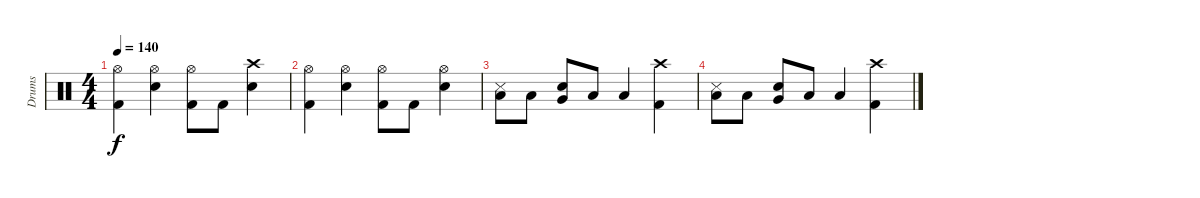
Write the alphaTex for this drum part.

\track ("Drums" "Drums") {instrument percussion}
\staff {score}
\articulation defaults
\ts (4 4)
\tempo 140
\clef neutral
\ks c
("Hi-Hat (open)" "Kick (hit) 2").4{dy f} ("Hi-Hat (open)" "Snare (hit) 2").4 ("Hi-Hat (open)" "Kick (hit) 2").8 "Kick (hit) 2".8 ("Crash high (hit)" "Snare (hit) 2").4 |
("Hi-Hat (open)" "Kick (hit) 2").4 ("Hi-Hat (open)" "Snare (hit) 2").4 ("Hi-Hat (open)" "Kick (hit) 2").8 "Kick (hit) 2".8 ("Hi-Hat (open)" "Snare (hit) 2").4 |
("Low Floor Tom (hit)" "Snare (side stick) 3").8 "Low Floor Tom (hit)".8 ("Very Low Tom (hit)" "Snare (hit) 2").8 "Low Floor Tom (hit)".8 "Low Floor Tom (hit)".4 ("Crash high (hit)" "Kick (hit) 2").4 |
("Low Floor Tom (hit)" "Snare (side stick) 3").8 "Low Floor Tom (hit)".8 ("Very Low Tom (hit)" "Snare (hit) 2").8 "Low Floor Tom (hit)".8 "Low Floor Tom (hit)".4 ("Crash high (hit)" "Kick (hit) 2").4
